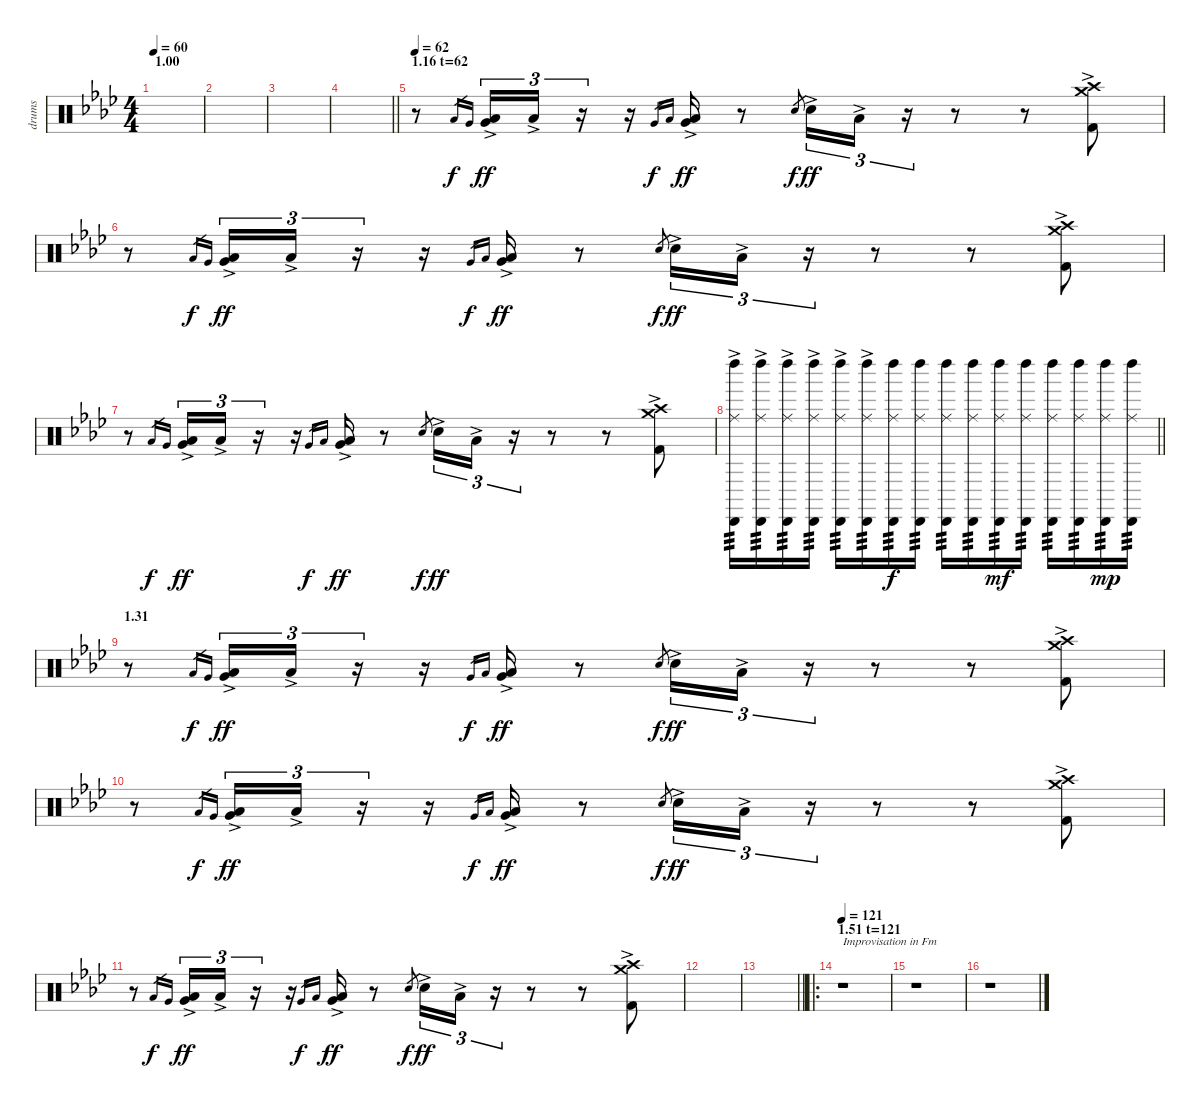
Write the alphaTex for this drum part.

\track ("drums" "drums") {instrument percussion}
\staff {score}
\articulation defaults
\ts (4 4)
\section ("" "1.00")
\tempo 60
\clef neutral
\ks fminor
|
|
|
\barLineRight lightlight
|
\section ("" "1.16 t=62")
\tempo 62
r.8 "Low Tom (hit)".16{gr} "Very Low Tom (hit)".16{gr} ("Low Tom (hit)"{ac} "Very Low Tom (hit)"{ac}).16{tu (3 2) dy ff} "Low Floor Tom (hit)"{ac}.16{tu (3 2)} r.16{tu (3 2)} r.16 "Very Low Tom (hit)".16{gr dy f} "Low Floor Tom (hit)".16{gr} ("Very Low Tom (hit)"{ac} "Low Floor Tom (hit)"{ac}).16{dy ff} r.8 "Electric Snare (hit)".8{gr dy f} "Electric Snare (hit)"{ac}.16{tu (3 2) dy ff} "Low Tom (hit)"{ac}.16{tu (3 2)} r.16{tu (3 2)} r.8 r.8 ("Crash high (hit)"{ac} "Crash medium (hit)"{ac} "Kick (hit) 2"{ac}).8 |
r.8 "Low Tom (hit)".16{gr dy f} "Very Low Tom (hit)".16{gr} ("Low Tom (hit)"{ac} "Very Low Tom (hit)"{ac}).16{tu (3 2) dy ff} "Low Floor Tom (hit)"{ac}.16{tu (3 2)} r.16{tu (3 2)} r.16 "Very Low Tom (hit)".16{gr dy f} "Low Floor Tom (hit)".16{gr} ("Very Low Tom (hit)"{ac} "Low Floor Tom (hit)"{ac}).16{dy ff} r.8 "Electric Snare (hit)".8{gr dy f} "Electric Snare (hit)"{ac}.16{tu (3 2) dy ff} "Low Tom (hit)"{ac}.16{tu (3 2)} r.16{tu (3 2)} r.8 r.8 ("Crash high (hit)"{ac} "Crash medium (hit)"{ac} "Kick (hit) 2"{ac}).8 |
r.8 "Low Tom (hit)".16{gr dy f} "Very Low Tom (hit)".16{gr} ("Low Tom (hit)"{ac} "Very Low Tom (hit)"{ac}).16{tu (3 2) dy ff} "Low Floor Tom (hit)"{ac}.16{tu (3 2)} r.16{tu (3 2)} r.16 "Very Low Tom (hit)".16{gr dy f} "Low Floor Tom (hit)".16{gr} ("Very Low Tom (hit)"{ac} "Low Floor Tom (hit)"{ac}).16{dy ff} r.8 "Electric Snare (hit)".8{gr dy f} "Electric Snare (hit)"{ac}.16{tu (3 2) dy ff} "Low Tom (hit)"{ac}.16{tu (3 2)} r.16{tu (3 2)} r.8 r.8 ("Crash high (hit)"{ac} "Crash medium (hit)"{ac} "Kick (hit) 2"{ac}).8 |
\barLineRight lightlight
("Ride (middle)"{ac} "Cabasa (hit)"{ac} "Left Maraca (hit)"{ac}).16{tp 3} ("Ride (middle)"{ac} "Cabasa (hit)"{ac} "Left Maraca (hit)"{ac}).16{tp 3} ("Ride (middle)"{ac} "Cabasa (hit)"{ac} "Left Maraca (hit)"{ac}).16{tp 3} ("Ride (middle)"{ac} "Cabasa (hit)"{ac} "Left Maraca (hit)"{ac}).16{tp 3} ("Ride (middle)"{ac} "Cabasa (hit)"{ac} "Left Maraca (hit)"{ac}).16{tp 3} ("Ride (middle)"{ac} "Cabasa (hit)"{ac} "Left Maraca (hit)"{ac}).16{tp 3} ("Ride (middle)" "Cabasa (hit)" "Left Maraca (hit)").16{tp 3 dy f} ("Ride (middle)" "Cabasa (hit)" "Left Maraca (hit)").16{tp 3} ("Ride (middle)" "Cabasa (hit)" "Left Maraca (hit)").16{tp 3} ("Ride (middle)" "Cabasa (hit)" "Left Maraca (hit)").16{tp 3} ("Ride (middle)" "Cabasa (hit)" "Left Maraca (hit)").16{tp 3 dy mf} ("Ride (middle)" "Cabasa (hit)" "Left Maraca (hit)").16{tp 3} ("Ride (middle)" "Cabasa (hit)" "Left Maraca (hit)").16{tp 3} ("Ride (middle)" "Cabasa (hit)" "Left Maraca (hit)").16{tp 3} ("Ride (middle)" "Cabasa (hit)" "Left Maraca (hit)").16{tp 3 dy mp} ("Ride (middle)" "Cabasa (hit)" "Left Maraca (hit)").16{tp 3} |
\section ("" "1.31")
r.8 "Low Tom (hit)".16{gr dy f} "Very Low Tom (hit)".16{gr} ("Low Tom (hit)"{ac} "Very Low Tom (hit)"{ac}).16{tu (3 2) dy ff} "Low Floor Tom (hit)"{ac}.16{tu (3 2)} r.16{tu (3 2)} r.16 "Very Low Tom (hit)".16{gr dy f} "Low Floor Tom (hit)".16{gr} ("Very Low Tom (hit)"{ac} "Low Floor Tom (hit)"{ac}).16{dy ff} r.8 "Electric Snare (hit)".8{gr dy f} "Electric Snare (hit)"{ac}.16{tu (3 2) dy ff} "Low Tom (hit)"{ac}.16{tu (3 2)} r.16{tu (3 2)} r.8 r.8 ("Crash high (hit)"{ac} "Crash medium (hit)"{ac} "Kick (hit) 2"{ac}).8 |
r.8 "Low Tom (hit)".16{gr dy f} "Very Low Tom (hit)".16{gr} ("Low Tom (hit)"{ac} "Very Low Tom (hit)"{ac}).16{tu (3 2) dy ff} "Low Floor Tom (hit)"{ac}.16{tu (3 2)} r.16{tu (3 2)} r.16 "Very Low Tom (hit)".16{gr dy f} "Low Floor Tom (hit)".16{gr} ("Very Low Tom (hit)"{ac} "Low Floor Tom (hit)"{ac}).16{dy ff} r.8 "Electric Snare (hit)".8{gr dy f} "Electric Snare (hit)"{ac}.16{tu (3 2) dy ff} "Low Tom (hit)"{ac}.16{tu (3 2)} r.16{tu (3 2)} r.8 r.8 ("Crash high (hit)"{ac} "Crash medium (hit)"{ac} "Kick (hit) 2"{ac}).8 |
r.8 "Low Tom (hit)".16{gr dy f} "Very Low Tom (hit)".16{gr} ("Low Tom (hit)"{ac} "Very Low Tom (hit)"{ac}).16{tu (3 2) dy ff} "Low Floor Tom (hit)"{ac}.16{tu (3 2)} r.16{tu (3 2)} r.16 "Very Low Tom (hit)".16{gr dy f} "Low Floor Tom (hit)".16{gr} ("Very Low Tom (hit)"{ac} "Low Floor Tom (hit)"{ac}).16{dy ff} r.8 "Electric Snare (hit)".8{gr dy f} "Electric Snare (hit)"{ac}.16{tu (3 2) dy ff} "Low Tom (hit)"{ac}.16{tu (3 2)} r.16{tu (3 2)} r.8 r.8 ("Crash high (hit)"{ac} "Crash medium (hit)"{ac} "Kick (hit) 2"{ac}).8 |
|
\barLineRight lightlight
|
\ro
\section ("" "1.51 t=121")
\tempo 121
r.1{txt "Improvisation in Fm"} |
r.1 |
r.1
